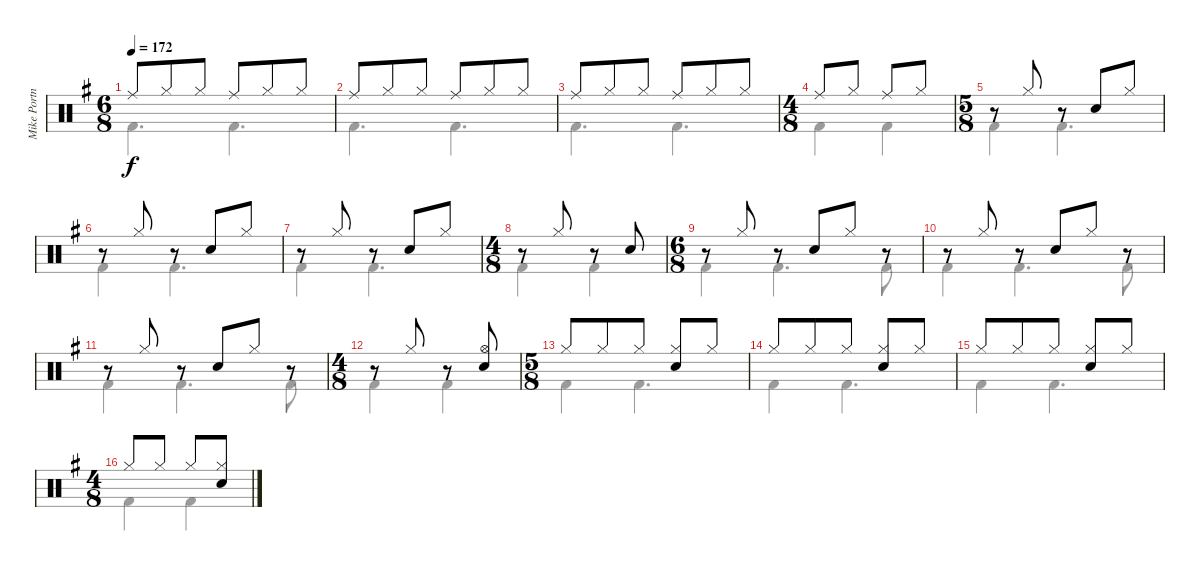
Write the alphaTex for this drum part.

\track ("Mike Portnoy - Drum" "Mike Portn") {instrument percussion}
\staff {score}
\articulation defaults
\voice
\ts (6 8)
\tempo 172
\clef neutral
\ks g "Ride (middle)".8{dy f} "Hi-Hat (closed)".8 "Hi-Hat (closed)".8 "Ride (middle)".8 "Hi-Hat (closed)".8 "Hi-Hat (closed)".8
|
"Ride (middle)".8 "Hi-Hat (closed)".8 "Hi-Hat (closed)".8 "Ride (middle)".8 "Hi-Hat (closed)".8 "Hi-Hat (closed)".8 |
"Ride (middle)".8 "Hi-Hat (closed)".8 "Hi-Hat (closed)".8 "Ride (middle)".8 "Hi-Hat (closed)".8 "Hi-Hat (closed)".8 |
\ts (4 8)
"Ride (middle)".8 "Hi-Hat (closed)".8 "Ride (middle)".8 "Hi-Hat (closed)".8 |
\ts (5 8)
r.8 "Hi-Hat (closed)".8 r.8 "Electric Snare (hit)".8 "Hi-Hat (closed)".8 |
r.8 "Hi-Hat (closed)".8 r.8 "Electric Snare (hit)".8 "Hi-Hat (closed)".8 |
r.8 "Hi-Hat (closed)".8 r.8 "Electric Snare (hit)".8 "Hi-Hat (closed)".8 |
\ts (4 8)
r.8 "Hi-Hat (closed)".8 r.8 "Electric Snare (hit)".8 |
\ts (6 8)
r.8 "Hi-Hat (closed)".8 r.8 "Electric Snare (hit)".8 "Hi-Hat (closed)".8 r.8 |
r.8 "Hi-Hat (closed)".8 r.8 "Electric Snare (hit)".8 "Hi-Hat (closed)".8 r.8 |
r.8 "Hi-Hat (closed)".8 r.8 "Electric Snare (hit)".8 "Hi-Hat (closed)".8 r.8 |
\ts (4 8)
r.8 "Hi-Hat (closed)".8 r.8 ("Hi-Hat (open)" "Electric Snare (hit)").8 |
\ts (5 8)
"Hi-Hat (closed)".8 "Hi-Hat (closed)".8 "Hi-Hat (closed)".8 ("Hi-Hat (closed)" "Electric Snare (hit)").8 "Hi-Hat (closed)".8 |
"Hi-Hat (closed)".8 "Hi-Hat (closed)".8 "Hi-Hat (closed)".8 ("Hi-Hat (closed)" "Electric Snare (hit)").8 "Hi-Hat (closed)".8 |
"Hi-Hat (closed)".8 "Hi-Hat (closed)".8 "Hi-Hat (closed)".8 ("Hi-Hat (closed)" "Electric Snare (hit)").8 "Hi-Hat (closed)".8 |
\ts (4 8)
"Hi-Hat (closed)".8 "Hi-Hat (closed)".8 "Hi-Hat (closed)".8 ("Hi-Hat (closed)" "Electric Snare (hit)").8
\voice
\clef neutral
\ottava regular
\simile none
\ks g "Kick (hit) 2".4{d dy f} "Kick (hit) 2".4{d}
|
"Kick (hit) 2".4{d} "Kick (hit) 2".4{d} |
"Kick (hit) 2".4{d} "Kick (hit) 2".4{d} |
"Kick (hit) 2".4 "Kick (hit) 2".4 |
"Kick (hit) 2".4 "Kick (hit) 2".4{d} |
"Kick (hit) 2".4 "Kick (hit) 2".4{d} |
"Kick (hit) 2".4 "Kick (hit) 2".4{d} |
"Kick (hit) 2".4 "Kick (hit) 2".4 |
"Kick (hit) 2".4 "Kick (hit) 2".4{d} "Kick (hit) 2".8 |
"Kick (hit) 2".4 "Kick (hit) 2".4{d} "Kick (hit) 2".8 |
"Kick (hit) 2".4 "Kick (hit) 2".4{d} "Kick (hit) 2".8 |
"Kick (hit) 2".4 "Kick (hit) 2".4 |
"Kick (hit) 2".4 "Kick (hit) 2".4{d} |
"Kick (hit) 2".4 "Kick (hit) 2".4{d} |
"Kick (hit) 2".4 "Kick (hit) 2".4{d} |
"Kick (hit) 2".4 "Kick (hit) 2".4
